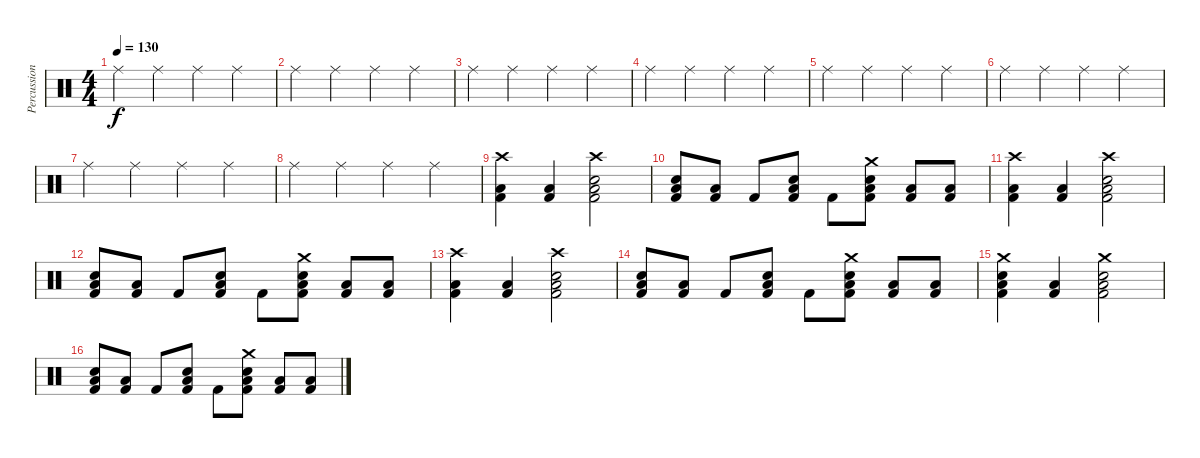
\track ("Percussion" "Percussion") {instrument percussion}
\staff {score}
\articulation defaults
\ts (4 4)
\tempo 130
\clef neutral
\ks c "Ride (middle)".4{dy f} "Ride (middle)".4 "Ride (middle)".4 "Ride (middle)".4
|
"Ride (middle)".4 "Ride (middle)".4 "Ride (middle)".4 "Ride (middle)".4 |
"Ride (middle)".4 "Ride (middle)".4 "Ride (middle)".4 "Ride (middle)".4 |
"Ride (middle)".4 "Ride (middle)".4 "Ride (middle)".4 "Ride (middle)".4 |
"Ride (middle)".4 "Ride (middle)".4 "Ride (middle)".4 "Ride (middle)".4 |
"Ride (middle)".4 "Ride (middle)".4 "Ride (middle)".4 "Ride (middle)".4 |
"Ride (middle)".4 "Ride (middle)".4 "Ride (middle)".4 "Ride (middle)".4 |
"Ride (middle)".4 "Ride (middle)".4 "Ride (middle)".4 "Ride (middle)".4 |
("Crash high (hit)" "Low Tom (hit)" "Kick (hit) 2").4{volume 16} ("Low Tom (hit)" "Kick (hit) 2").4 ("Crash high (hit)" "Electric Snare (hit)" "Low Tom (hit)" "Kick (hit) 2").2 |
("Electric Snare (hit)" "Low Tom (hit)" "Kick (hit) 2").8 ("Low Tom (hit)" "Kick (hit) 2").8 "Kick (hit) 2".8 ("Electric Snare (hit)" "Low Tom (hit)" "Kick (hit) 2").8 "Kick (hit) 2".8 ("Crash medium (hit)" "Electric Snare (hit)" "Low Tom (hit)" "Kick (hit) 2").8 ("Low Tom (hit)" "Kick (hit) 2").8 ("Low Tom (hit)" "Kick (hit) 2").8 |
("Crash high (hit)" "Low Tom (hit)" "Kick (hit) 2").4 ("Low Tom (hit)" "Kick (hit) 2").4 ("Crash high (hit)" "Electric Snare (hit)" "Low Tom (hit)" "Kick (hit) 2").2 |
("Electric Snare (hit)" "Low Tom (hit)" "Kick (hit) 2").8 ("Low Tom (hit)" "Kick (hit) 2").8 "Kick (hit) 2".8 ("Electric Snare (hit)" "Low Tom (hit)" "Kick (hit) 2").8 "Kick (hit) 2".8 ("Crash medium (hit)" "Electric Snare (hit)" "Low Tom (hit)" "Kick (hit) 2").8 ("Low Tom (hit)" "Kick (hit) 2").8 ("Low Tom (hit)" "Kick (hit) 2").8 |
("Crash high (hit)" "Low Tom (hit)" "Kick (hit) 2").4 ("Low Tom (hit)" "Kick (hit) 2").4 ("Crash high (hit)" "Electric Snare (hit)" "Low Tom (hit)" "Kick (hit) 2").2 |
("Electric Snare (hit)" "Low Tom (hit)" "Kick (hit) 2").8 ("Low Tom (hit)" "Kick (hit) 2").8 "Kick (hit) 2".8 ("Electric Snare (hit)" "Low Tom (hit)" "Kick (hit) 2").8 "Kick (hit) 2".8 ("Crash medium (hit)" "Electric Snare (hit)" "Low Tom (hit)" "Kick (hit) 2").8 ("Low Tom (hit)" "Kick (hit) 2").8 ("Low Tom (hit)" "Kick (hit) 2").8 |
("Crash medium (hit)" "Electric Snare (hit)" "Low Tom (hit)" "Kick (hit) 2").4 ("Low Tom (hit)" "Kick (hit) 2").4 ("Crash medium (hit)" "Electric Snare (hit)" "Low Tom (hit)" "Kick (hit) 2").2 |
("Electric Snare (hit)" "Low Tom (hit)" "Kick (hit) 2").8 ("Low Tom (hit)" "Kick (hit) 2").8 "Kick (hit) 2".8 ("Electric Snare (hit)" "Low Tom (hit)" "Kick (hit) 2").8 "Kick (hit) 2".8 ("Crash medium (hit)" "Electric Snare (hit)" "Low Tom (hit)" "Kick (hit) 2").8 ("Low Tom (hit)" "Kick (hit) 2").8 ("Low Tom (hit)" "Kick (hit) 2").8
